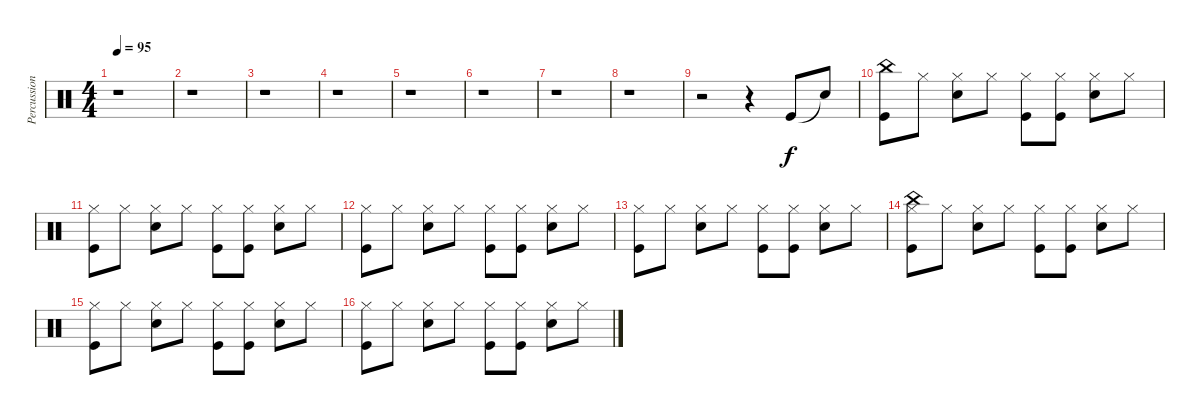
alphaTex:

\track ("Percussion" "Percussion") {instrument percussion}
\staff {score}
\articulation defaults
\ts (4 4)
\tempo 95
\clef neutral
\ks c
r.1{dy f} |
r.1 |
r.1 |
r.1 |
r.1 |
r.1 |
r.1 |
r.1 |
r.2 r.4 "Kick (hit)".8 "Snare (hit)"{t}.8 |
("Kick (hit)" "China (hit)").8 "Hi-Hat (closed)".8 ("Hi-Hat (closed)" "Snare (hit) 2").8 "Hi-Hat (closed)".8 ("Hi-Hat (closed)" "Kick (hit)").8 ("Hi-Hat (closed)" "Kick (hit)").8 ("Hi-Hat (closed)" "Snare (hit) 2").8 "Hi-Hat (closed)".8 |
("Kick (hit)" "Hi-Hat (closed)").8 "Hi-Hat (closed)".8 ("Hi-Hat (closed)" "Snare (hit) 2").8 "Hi-Hat (closed)".8 ("Hi-Hat (closed)" "Kick (hit)").8 ("Hi-Hat (closed)" "Kick (hit)").8 ("Hi-Hat (closed)" "Snare (hit) 2").8 "Hi-Hat (closed)".8 |
("Hi-Hat (closed)" "Kick (hit)").8 "Hi-Hat (closed)".8 ("Hi-Hat (closed)" "Snare (hit) 2").8 "Hi-Hat (closed)".8 ("Hi-Hat (closed)" "Kick (hit)").8 ("Hi-Hat (closed)" "Kick (hit)").8 ("Hi-Hat (closed)" "Snare (hit) 2").8 "Hi-Hat (closed)".8 |
("Hi-Hat (closed)" "Kick (hit)").8 "Hi-Hat (closed)".8 ("Hi-Hat (closed)" "Snare (hit) 2").8 "Hi-Hat (closed)".8 ("Hi-Hat (closed)" "Kick (hit)").8 ("Hi-Hat (closed)" "Kick (hit)").8 ("Hi-Hat (closed)" "Snare (hit) 2").8 "Hi-Hat (closed)".8 |
("Hi-Hat (closed)" "Kick (hit)" "China (hit)").8 "Hi-Hat (closed)".8 ("Hi-Hat (closed)" "Snare (hit) 2").8 "Hi-Hat (closed)".8 ("Hi-Hat (closed)" "Kick (hit)").8 ("Hi-Hat (closed)" "Kick (hit)").8 ("Hi-Hat (closed)" "Snare (hit) 2").8 "Hi-Hat (closed)".8 |
("Hi-Hat (closed)" "Kick (hit)").8 "Hi-Hat (closed)".8 ("Hi-Hat (closed)" "Snare (hit) 2").8 "Hi-Hat (closed)".8 ("Hi-Hat (closed)" "Kick (hit)").8 ("Hi-Hat (closed)" "Kick (hit)").8 ("Hi-Hat (closed)" "Snare (hit) 2").8 "Hi-Hat (closed)".8 |
("Hi-Hat (closed)" "Kick (hit)").8 "Hi-Hat (closed)".8 ("Hi-Hat (closed)" "Snare (hit) 2").8 "Hi-Hat (closed)".8 ("Hi-Hat (closed)" "Kick (hit)").8 ("Hi-Hat (closed)" "Kick (hit)").8 ("Hi-Hat (closed)" "Snare (hit) 2").8 "Hi-Hat (closed)".8
